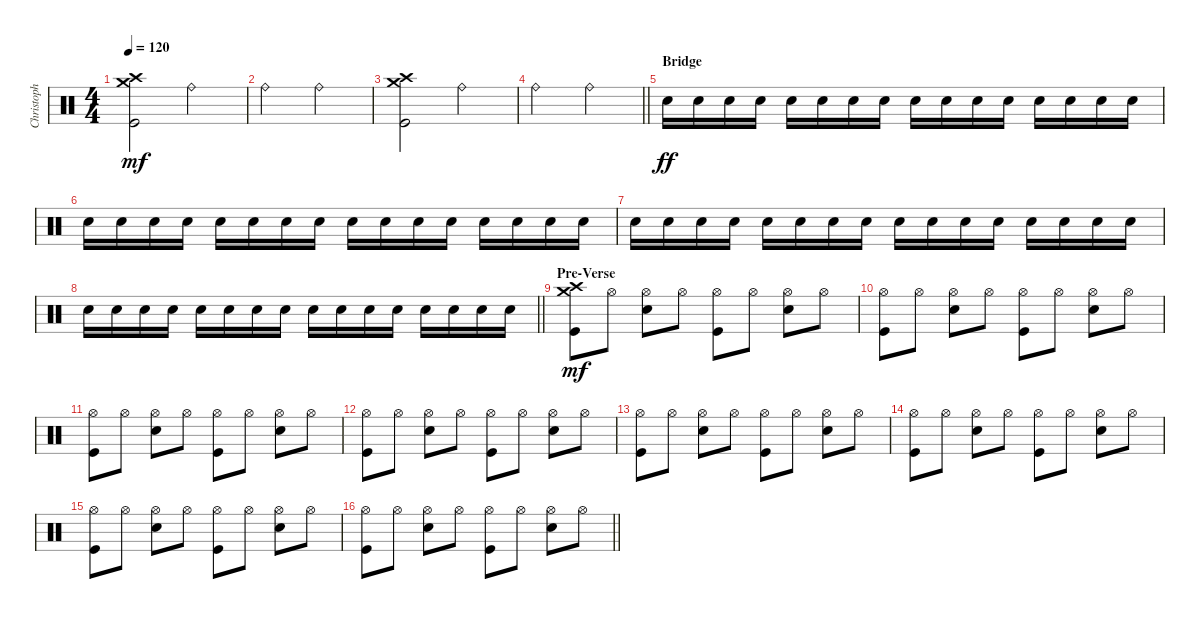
\track ("Christoph Schneider" "Christoph ") {instrument percussion}
\staff {score}
\articulation defaults
\ts (4 4)
\tempo 120
\clef neutral
\ks c
("Kick (hit)" "Crash high (hit)" "Crash medium (hit)").2{dy mf} "Ride (bell)".2 |
"Ride (bell)".2 "Ride (bell)".2 |
("Crash high (hit)" "Kick (hit)" "Crash medium (hit)").2 "Ride (bell)".2 |
\barLineRight lightlight "Ride (bell)".2 "Ride (bell)".2
|
\section ("" "Bridge")
"Snare (hit) 2".16{dy ff} "Snare (hit) 2".16 "Snare (hit) 2".16 "Snare (hit) 2".16 "Snare (hit) 2".16 "Snare (hit) 2".16 "Snare (hit) 2".16 "Snare (hit) 2".16 "Snare (hit) 2".16 "Snare (hit) 2".16 "Snare (hit) 2".16 "Snare (hit) 2".16 "Snare (hit) 2".16 "Snare (hit) 2".16 "Snare (hit) 2".16 "Snare (hit) 2".16 |
"Snare (hit) 2".16 "Snare (hit) 2".16 "Snare (hit) 2".16 "Snare (hit) 2".16 "Snare (hit) 2".16 "Snare (hit) 2".16 "Snare (hit) 2".16 "Snare (hit) 2".16 "Snare (hit) 2".16 "Snare (hit) 2".16 "Snare (hit) 2".16 "Snare (hit) 2".16 "Snare (hit) 2".16 "Snare (hit) 2".16 "Snare (hit) 2".16 "Snare (hit) 2".16 |
"Snare (hit) 2".16 "Snare (hit) 2".16 "Snare (hit) 2".16 "Snare (hit) 2".16 "Snare (hit) 2".16 "Snare (hit) 2".16 "Snare (hit) 2".16 "Snare (hit) 2".16 "Snare (hit) 2".16 "Snare (hit) 2".16 "Snare (hit) 2".16 "Snare (hit) 2".16 "Snare (hit) 2".16 "Snare (hit) 2".16 "Snare (hit) 2".16 "Snare (hit) 2".16 |
\barLineRight lightlight "Snare (hit) 2".16 "Snare (hit) 2".16 "Snare (hit) 2".16 "Snare (hit) 2".16 "Snare (hit) 2".16 "Snare (hit) 2".16 "Snare (hit) 2".16 "Snare (hit) 2".16 "Snare (hit) 2".16 "Snare (hit) 2".16 "Snare (hit) 2".16 "Snare (hit) 2".16 "Snare (hit) 2".16 "Snare (hit) 2".16 "Snare (hit) 2".16 "Snare (hit) 2".16
|
\section ("" "Pre-Verse")
("Kick (hit)" "Crash high (hit)" "Crash medium (hit)").8{dy mf} "Hi-Hat (open)".8 ("Snare (hit) 2" "Hi-Hat (open)").8 "Hi-Hat (open)".8 ("Hi-Hat (open)" "Kick (hit)").8 "Hi-Hat (open)".8 ("Hi-Hat (open)" "Snare (hit) 2").8 "Hi-Hat (open)".8 |
("Kick (hit)" "Hi-Hat (open)").8 "Hi-Hat (open)".8 ("Snare (hit) 2" "Hi-Hat (open)").8 "Hi-Hat (open)".8 ("Hi-Hat (open)" "Kick (hit)").8 "Hi-Hat (open)".8 ("Hi-Hat (open)" "Snare (hit) 2").8 "Hi-Hat (open)".8 |
("Kick (hit)" "Hi-Hat (open)").8 "Hi-Hat (open)".8 ("Snare (hit) 2" "Hi-Hat (open)").8 "Hi-Hat (open)".8 ("Hi-Hat (open)" "Kick (hit)").8 "Hi-Hat (open)".8 ("Hi-Hat (open)" "Snare (hit) 2").8 "Hi-Hat (open)".8 |
("Kick (hit)" "Hi-Hat (open)").8 "Hi-Hat (open)".8 ("Snare (hit) 2" "Hi-Hat (open)").8 "Hi-Hat (open)".8 ("Hi-Hat (open)" "Kick (hit)").8 "Hi-Hat (open)".8 ("Hi-Hat (open)" "Snare (hit) 2").8 "Hi-Hat (open)".8 |
("Kick (hit)" "Hi-Hat (open)").8 "Hi-Hat (open)".8 ("Snare (hit) 2" "Hi-Hat (open)").8 "Hi-Hat (open)".8 ("Hi-Hat (open)" "Kick (hit)").8 "Hi-Hat (open)".8 ("Hi-Hat (open)" "Snare (hit) 2").8 "Hi-Hat (open)".8 |
("Kick (hit)" "Hi-Hat (open)").8 "Hi-Hat (open)".8 ("Snare (hit) 2" "Hi-Hat (open)").8 "Hi-Hat (open)".8 ("Hi-Hat (open)" "Kick (hit)").8 "Hi-Hat (open)".8 ("Hi-Hat (open)" "Snare (hit) 2").8 "Hi-Hat (open)".8 |
("Kick (hit)" "Hi-Hat (open)").8 "Hi-Hat (open)".8 ("Snare (hit) 2" "Hi-Hat (open)").8 "Hi-Hat (open)".8 ("Hi-Hat (open)" "Kick (hit)").8 "Hi-Hat (open)".8 ("Hi-Hat (open)" "Snare (hit) 2").8 "Hi-Hat (open)".8 |
\barLineRight lightlight
("Kick (hit)" "Hi-Hat (open)").8 "Hi-Hat (open)".8 ("Snare (hit) 2" "Hi-Hat (open)").8 "Hi-Hat (open)".8 ("Hi-Hat (open)" "Kick (hit)").8 "Hi-Hat (open)".8 ("Hi-Hat (open)" "Snare (hit) 2").8 "Hi-Hat (open)".8
